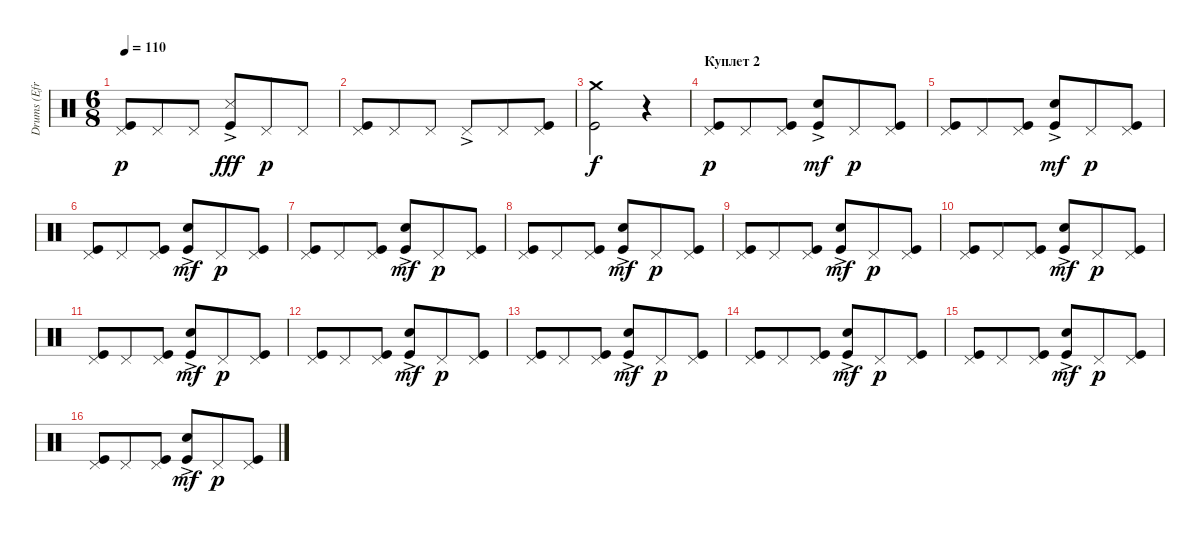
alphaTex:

\track ("Drums (Efremov)" "Drums (Efr") {instrument percussion}
\staff {score}
\articulation defaults
\ts (6 8)
\tempo 110
\clef neutral
\ks c
("Pedal Hi-Hat (hit)" "Kick (hit)").8{dy p} "Pedal Hi-Hat (hit)".8 "Pedal Hi-Hat (hit)".8 ("Kick (hit)" "Snare (side stick) 3"{ac}).8{dy fff} "Pedal Hi-Hat (hit)".8{dy p} "Pedal Hi-Hat (hit)".8 |
("Pedal Hi-Hat (hit)" "Kick (hit)").8 "Pedal Hi-Hat (hit)".8 "Pedal Hi-Hat (hit)".8 "Pedal Hi-Hat (hit)"{ac}.8 "Pedal Hi-Hat (hit)".8 ("Kick (hit)" "Pedal Hi-Hat (hit)").8 |
("Crash medium (hit)" "Kick (hit)").2{dy f} r.4 |
\section ("" "Куплет 2")
("Pedal Hi-Hat (hit)" "Kick (hit)").8{dy p} "Pedal Hi-Hat (hit)".8 ("Kick (hit)" "Pedal Hi-Hat (hit)").8 ("Kick (hit)" "Electric Snare (hit)"{ac}).8{dy mf} "Pedal Hi-Hat (hit)".8{dy p} ("Kick (hit)" "Pedal Hi-Hat (hit)").8 |
("Pedal Hi-Hat (hit)" "Kick (hit)").8 "Pedal Hi-Hat (hit)".8 ("Kick (hit)" "Pedal Hi-Hat (hit)").8 ("Kick (hit)" "Electric Snare (hit)"{ac}).8{dy mf} "Pedal Hi-Hat (hit)".8{dy p} ("Kick (hit)" "Pedal Hi-Hat (hit)").8 |
("Pedal Hi-Hat (hit)" "Kick (hit)").8 "Pedal Hi-Hat (hit)".8 ("Kick (hit)" "Pedal Hi-Hat (hit)").8 ("Kick (hit)" "Electric Snare (hit)"{ac}).8{dy mf} "Pedal Hi-Hat (hit)".8{dy p} ("Kick (hit)" "Pedal Hi-Hat (hit)").8 |
("Pedal Hi-Hat (hit)" "Kick (hit)").8 "Pedal Hi-Hat (hit)".8 ("Kick (hit)" "Pedal Hi-Hat (hit)").8 ("Kick (hit)" "Electric Snare (hit)"{ac}).8{dy mf} "Pedal Hi-Hat (hit)".8{dy p} ("Kick (hit)" "Pedal Hi-Hat (hit)").8 |
("Pedal Hi-Hat (hit)" "Kick (hit)").8 "Pedal Hi-Hat (hit)".8 ("Kick (hit)" "Pedal Hi-Hat (hit)").8 ("Kick (hit)" "Electric Snare (hit)"{ac}).8{dy mf} "Pedal Hi-Hat (hit)".8{dy p} ("Kick (hit)" "Pedal Hi-Hat (hit)").8 |
("Pedal Hi-Hat (hit)" "Kick (hit)").8 "Pedal Hi-Hat (hit)".8 ("Kick (hit)" "Pedal Hi-Hat (hit)").8 ("Kick (hit)" "Electric Snare (hit)"{ac}).8{dy mf} "Pedal Hi-Hat (hit)".8{dy p} ("Kick (hit)" "Pedal Hi-Hat (hit)").8 |
("Pedal Hi-Hat (hit)" "Kick (hit)").8 "Pedal Hi-Hat (hit)".8 ("Kick (hit)" "Pedal Hi-Hat (hit)").8 ("Kick (hit)" "Electric Snare (hit)"{ac}).8{dy mf} "Pedal Hi-Hat (hit)".8{dy p} ("Kick (hit)" "Pedal Hi-Hat (hit)").8 |
("Pedal Hi-Hat (hit)" "Kick (hit)").8 "Pedal Hi-Hat (hit)".8 ("Kick (hit)" "Pedal Hi-Hat (hit)").8 ("Kick (hit)" "Electric Snare (hit)"{ac}).8{dy mf} "Pedal Hi-Hat (hit)".8{dy p} ("Kick (hit)" "Pedal Hi-Hat (hit)").8 |
("Pedal Hi-Hat (hit)" "Kick (hit)").8 "Pedal Hi-Hat (hit)".8 ("Kick (hit)" "Pedal Hi-Hat (hit)").8 ("Kick (hit)" "Electric Snare (hit)"{ac}).8{dy mf} "Pedal Hi-Hat (hit)".8{dy p} ("Kick (hit)" "Pedal Hi-Hat (hit)").8 |
("Pedal Hi-Hat (hit)" "Kick (hit)").8 "Pedal Hi-Hat (hit)".8 ("Kick (hit)" "Pedal Hi-Hat (hit)").8 ("Kick (hit)" "Electric Snare (hit)"{ac}).8{dy mf} "Pedal Hi-Hat (hit)".8{dy p} ("Kick (hit)" "Pedal Hi-Hat (hit)").8 |
("Pedal Hi-Hat (hit)" "Kick (hit)").8 "Pedal Hi-Hat (hit)".8 ("Kick (hit)" "Pedal Hi-Hat (hit)").8 ("Kick (hit)" "Electric Snare (hit)"{ac}).8{dy mf} "Pedal Hi-Hat (hit)".8{dy p} ("Kick (hit)" "Pedal Hi-Hat (hit)").8 |
("Pedal Hi-Hat (hit)" "Kick (hit)").8 "Pedal Hi-Hat (hit)".8 ("Kick (hit)" "Pedal Hi-Hat (hit)").8 ("Kick (hit)" "Electric Snare (hit)"{ac}).8{dy mf} "Pedal Hi-Hat (hit)".8{dy p} ("Kick (hit)" "Pedal Hi-Hat (hit)").8 |
("Pedal Hi-Hat (hit)" "Kick (hit)").8 "Pedal Hi-Hat (hit)".8 ("Kick (hit)" "Pedal Hi-Hat (hit)").8 ("Kick (hit)" "Electric Snare (hit)"{ac}).8{dy mf} "Pedal Hi-Hat (hit)".8{dy p} ("Kick (hit)" "Pedal Hi-Hat (hit)").8
